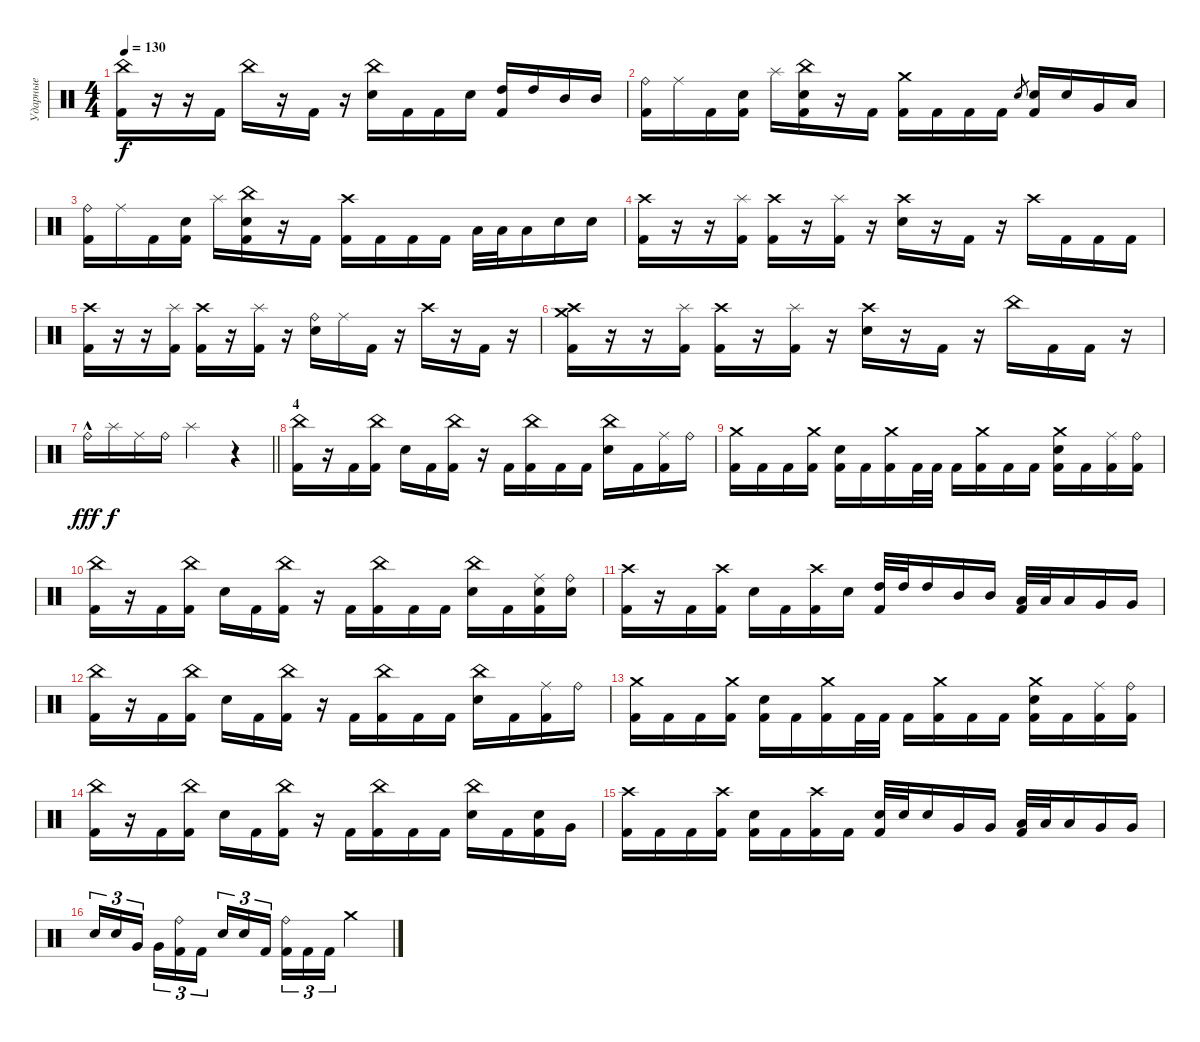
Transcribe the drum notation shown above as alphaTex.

\track ("Ударные" "Ударные") {instrument percussion}
\staff {score}
\articulation defaults
\ts (4 4)
\tempo 130
\clef neutral
\ks c
("China (hit)" "Kick (hit) 2").16{dy f} r.16 r.16 "Kick (hit) 2".16 "China (hit)".16 r.16 "Kick (hit) 2".16 r.16 ("China (hit)" "Electric Snare (hit)").16 "Kick (hit) 2".16 "Kick (hit) 2".16 "Electric Snare (hit)".16 ("High Tom (hit)" "Kick (hit) 2").16 "High Tom (hit)".16 "Mid Tom (hit)".16 "Mid Tom (hit)".16 |
("Ride (bell)" "Kick (hit) 2").16 "Ride (middle)".16 "Kick (hit) 2".16 ("Electric Snare (hit)" "Kick (hit) 2").16 "Splash (hit)".16 ("China (hit)" "Electric Snare (hit)" "Kick (hit) 2").16 r.16 "Kick (hit) 2".16 ("Crash medium (hit)" "Kick (hit) 2").16 "Kick (hit) 2".16 "Kick (hit) 2".16 "Kick (hit) 2".16 "Electric Snare (hit)".8{gr} ("Electric Snare (hit)" "Kick (hit) 2").16 "Electric Snare (hit)".16 "Very Low Tom (hit)".16 "Low Tom (hit)".16 |
("Ride (bell)" "Kick (hit) 2").16 "Ride (middle)".16 "Kick (hit) 2".16 ("Electric Snare (hit)" "Kick (hit) 2").16 "Splash (hit)".16 ("China (hit)" "Electric Snare (hit)" "Kick (hit) 2").16 r.16 "Kick (hit) 2".16 ("Crash high (hit)" "Kick (hit) 2").16 "Kick (hit) 2".16 "Kick (hit) 2".16 "Kick (hit) 2".16 "Low Tom (hit)".32 "Low Tom (hit)".32 "Low Tom (hit)".16 "Electric Snare (hit)".16 "Electric Snare (hit)".16 |
("Crash high (hit)" "Kick (hit) 2").16 r.16 r.16 ("Splash (hit)" "Kick (hit) 2").16 ("Crash high (hit)" "Kick (hit) 2").16 r.16 ("Splash (hit)" "Kick (hit) 2").16 r.16 ("Crash high (hit)" "Electric Snare (hit)").16 r.16 "Kick (hit) 2".16 r.16 "Crash high (hit)".16 "Kick (hit) 2".16 "Kick (hit) 2".16 "Kick (hit) 2".16 |
("Crash high (hit)" "Kick (hit) 2").16 r.16 r.16 ("Splash (hit)" "Kick (hit) 2").16 ("Crash high (hit)" "Kick (hit) 2").16 r.16 ("Splash (hit)" "Kick (hit) 2").16 r.16 ("Ride (bell)" "Electric Snare (hit)").16 "Ride (middle)".16 "Kick (hit) 2".16 r.16 "Crash high (hit)".16 r.16 "Kick (hit) 2".16 r.16 |
("Crash medium (hit)" "Crash high (hit)" "Kick (hit) 2").16 r.16 r.16 ("Splash (hit)" "Kick (hit) 2").16 ("Crash high (hit)" "Kick (hit) 2").16 r.16 ("Splash (hit)" "Kick (hit) 2").16 r.16 ("Crash high (hit)" "Electric Snare (hit)").16 r.16 "Kick (hit) 2".16 r.16 "China (hit)".16 "Kick (hit) 2".16 "Kick (hit) 2".16 r.16 |
\barLineRight lightlight "Ride (bell)"{hac}.16{dy fff} "Splash (hit)".16{dy f} "Ride (middle)".16 "Ride (bell)".16 "Splash (hit)".2
r.4 |
\section ("" "4")
("China (hit)" "Kick (hit) 2").16 r.16 "Kick (hit) 2".16 ("China (hit)" "Kick (hit) 2").16 "Electric Snare (hit)".16 "Kick (hit) 2".16 ("China (hit)" "Kick (hit) 2").16 r.16 "Kick (hit) 2".16 ("China (hit)" "Kick (hit) 2").16 "Kick (hit) 2".16 "Kick (hit) 2".16 ("China (hit)" "Electric Snare (hit)").16 "Kick (hit) 2".16 ("Ride (middle)" "Kick (hit) 2").16 "Ride (bell)".16 |
("Crash medium (hit)" "Kick (hit) 2").16 "Kick (hit) 2".16 "Kick (hit) 2".16 ("Crash medium (hit)" "Kick (hit) 2").16 ("Electric Snare (hit)" "Kick (hit) 2").16 "Kick (hit) 2".16 ("Crash medium (hit)" "Kick (hit) 2").16 "Kick (hit) 2".32 "Kick (hit) 2".32 "Kick (hit) 2".16 ("Crash medium (hit)" "Kick (hit) 2").16 "Kick (hit) 2".16 "Kick (hit) 2".16 ("Crash medium (hit)" "Electric Snare (hit)" "Kick (hit) 2").16 "Kick (hit) 2".16 ("Ride (middle)" "Kick (hit) 2").16 ("Ride (bell)" "Kick (hit) 2").16 |
("China (hit)" "Kick (hit) 2").16 r.16 "Kick (hit) 2".16 ("China (hit)" "Kick (hit) 2").16 "Electric Snare (hit)".16 "Kick (hit) 2".16 ("China (hit)" "Kick (hit) 2").16 r.16 "Kick (hit) 2".16 ("China (hit)" "Kick (hit) 2").16 "Kick (hit) 2".16 "Kick (hit) 2".16 ("China (hit)" "Electric Snare (hit)").16 "Kick (hit) 2".16 ("Ride (middle)" "Electric Snare (hit)" "Kick (hit) 2").16 ("Ride (bell)" "Electric Snare (hit)").16 |
("Crash high (hit)" "Kick (hit) 2").16 r.16 "Kick (hit) 2".16 ("Crash high (hit)" "Kick (hit) 2").16 "Electric Snare (hit)".16 "Kick (hit) 2".16 ("Crash high (hit)" "Kick (hit) 2").16 "Electric Snare (hit)".16 ("High Tom (hit)" "Kick (hit) 2").32 "High Tom (hit)".32 "High Tom (hit)".16 "Mid Tom (hit)".16 "Mid Tom (hit)".16 ("Low Tom (hit)" "Kick (hit) 2").32 "Low Tom (hit)".32 "Low Tom (hit)".16 "Very Low Tom (hit)".16 "Very Low Tom (hit)".16 |
("China (hit)" "Kick (hit) 2").16 r.16 "Kick (hit) 2".16 ("China (hit)" "Kick (hit) 2").16 "Electric Snare (hit)".16 "Kick (hit) 2".16 ("China (hit)" "Kick (hit) 2").16 r.16 "Kick (hit) 2".16 ("China (hit)" "Kick (hit) 2").16 "Kick (hit) 2".16 "Kick (hit) 2".16 ("China (hit)" "Electric Snare (hit)").16 "Kick (hit) 2".16 ("Ride (middle)" "Kick (hit) 2").16 "Ride (bell)".16 |
("Crash medium (hit)" "Kick (hit) 2").16 "Kick (hit) 2".16 "Kick (hit) 2".16 ("Crash medium (hit)" "Kick (hit) 2").16 ("Electric Snare (hit)" "Kick (hit) 2").16 "Kick (hit) 2".16 ("Crash medium (hit)" "Kick (hit) 2").16 "Kick (hit) 2".32 "Kick (hit) 2".32 "Kick (hit) 2".16 ("Crash medium (hit)" "Kick (hit) 2").16 "Kick (hit) 2".16 "Kick (hit) 2".16 ("Crash medium (hit)" "Electric Snare (hit)" "Kick (hit) 2").16 "Kick (hit) 2".16 ("Ride (middle)" "Kick (hit) 2").16 ("Ride (bell)" "Kick (hit) 2").16 |
("China (hit)" "Kick (hit) 2").16 r.16 "Kick (hit) 2".16 ("China (hit)" "Kick (hit) 2").16 "Electric Snare (hit)".16 "Kick (hit) 2".16 ("China (hit)" "Kick (hit) 2").16 r.16 "Kick (hit) 2".16 ("China (hit)" "Kick (hit) 2").16 "Kick (hit) 2".16 "Kick (hit) 2".16 ("China (hit)" "Electric Snare (hit)").16 "Kick (hit) 2".16 ("Electric Snare (hit)" "Kick (hit) 2").16 "Very Low Tom (hit)".16 |
("Crash high (hit)" "Kick (hit) 2").16 "Kick (hit) 2".16 "Kick (hit) 2".16 ("Crash high (hit)" "Kick (hit) 2").16 ("Electric Snare (hit)" "Kick (hit) 2").16 "Kick (hit) 2".16 ("Crash high (hit)" "Kick (hit) 2").16 "Kick (hit) 2".16 ("Electric Snare (hit)" "Kick (hit) 2").32 "Electric Snare (hit)".32 "Electric Snare (hit)".16 "Very Low Tom (hit)".16 "Very Low Tom (hit)".16 ("Low Tom (hit)" "Kick (hit) 2").32 "Low Tom (hit)".32 "Low Tom (hit)".16 "Very Low Tom (hit)".16 "Very Low Tom (hit)".16 |
"Electric Snare (hit)".16{tu (3 2)} "Electric Snare (hit)".16{tu (3 2)} "Very Low Tom (hit)".16{tu (3 2) beam splitsecondary} "Very Low Tom (hit)".16{tu (3 2)} ("Ride (bell)" "Kick (hit) 2").16{tu (3 2)} "Kick (hit) 2".16{tu (3 2)} "Electric Snare (hit)".16{tu (3 2)} "Electric Snare (hit)".16{tu (3 2)} "Kick (hit) 2".16{tu (3 2) beam splitsecondary} ("Ride (bell)" "Kick (hit) 2").16{tu (3 2)} "Kick (hit) 2".16{tu (3 2)} "Kick (hit) 2".16{tu (3 2)} "Crash medium (hit)".2
